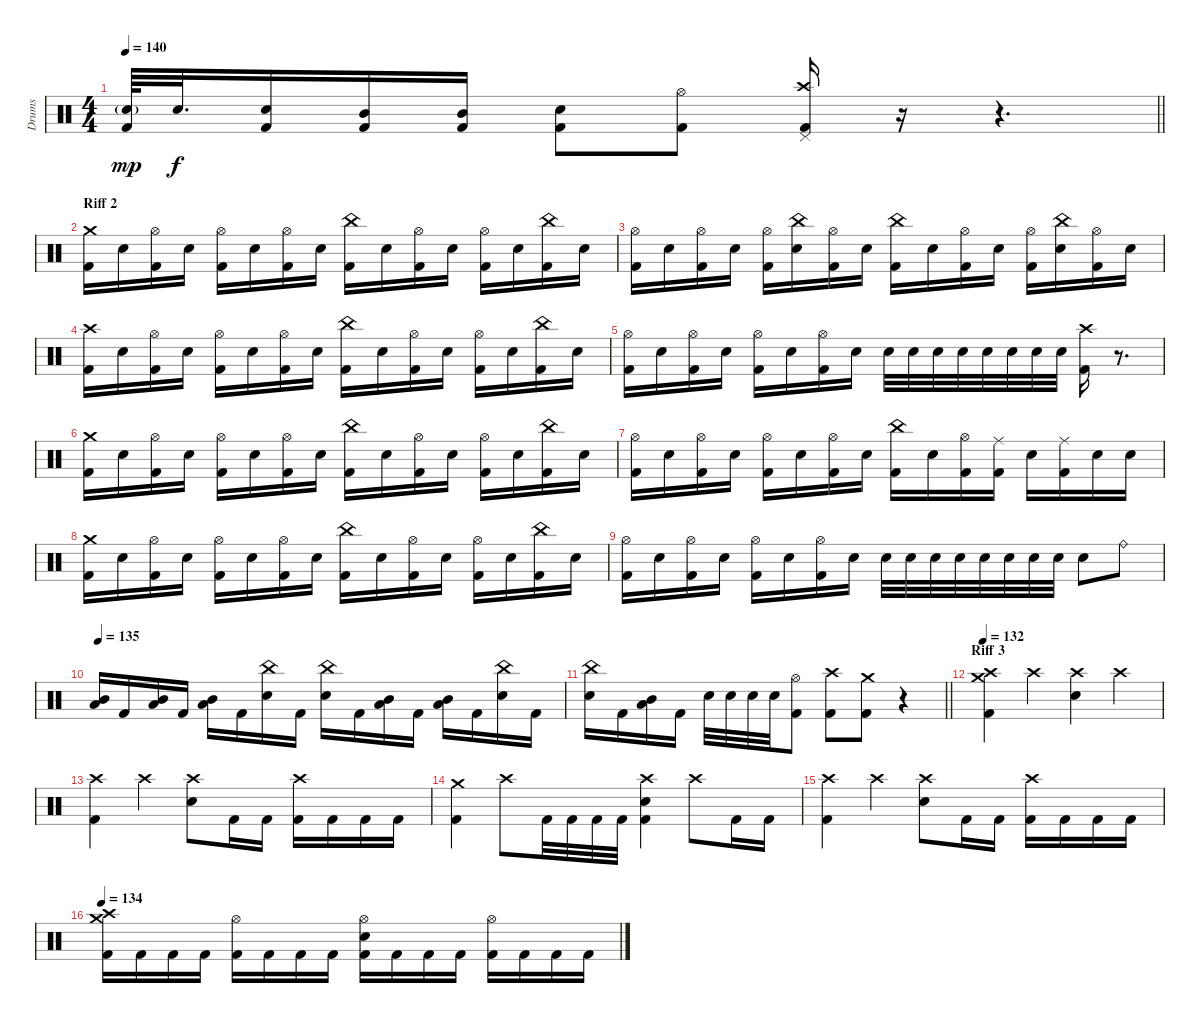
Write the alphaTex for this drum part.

\track ("Drums" "Drums") {instrument percussion}
\staff {score}
\articulation defaults
\ts (4 4)
\tempo 140
\clef neutral
\barLineRight lightlight
\ks c
("Electric Snare (hit)"{g} "Kick (hit) 2").64{dy mp} "Electric Snare (hit)".32{d dy f} ("Electric Snare (hit)" "Kick (hit) 2").16 ("Mid Tom (hit)" "Kick (hit) 2").16 ("Mid Tom (hit)" "Kick (hit) 2").16 ("Electric Snare (hit)" "Kick (hit) 2").8 ("Hi-Hat (open)" "Kick (hit) 2").8 ("Crash high (hit)" "Pedal Hi-Hat (hit)" "Kick (hit) 2").16 r.16{volume 0} r.4{d} |
\section ("" "Riff 2")
("Crash medium (hit)" "Kick (hit) 2").16{volume 13} "Electric Snare (hit)".16 ("Hi-Hat (open)" "Kick (hit) 2").16 "Electric Snare (hit)".16 ("Hi-Hat (open)" "Kick (hit) 2").16 "Electric Snare (hit)".16 ("Hi-Hat (open)" "Kick (hit) 2").16 "Electric Snare (hit)".16 ("China (hit)" "Kick (hit) 2").16 "Electric Snare (hit)".16 ("Hi-Hat (open)" "Kick (hit) 2").16 "Electric Snare (hit)".16 ("Hi-Hat (open)" "Kick (hit) 2").16 "Electric Snare (hit)".16 ("China (hit)" "Kick (hit) 2").16 "Electric Snare (hit)".16 |
("Hi-Hat (open)" "Kick (hit) 2").16 "Electric Snare (hit)".16 ("Hi-Hat (open)" "Kick (hit) 2").16 "Electric Snare (hit)".16 ("Hi-Hat (open)" "Kick (hit) 2").16 ("China (hit)" "Electric Snare (hit)").16 ("Hi-Hat (open)" "Kick (hit) 2").16 "Electric Snare (hit)".16 ("China (hit)" "Kick (hit) 2").16 "Electric Snare (hit)".16 ("Hi-Hat (open)" "Kick (hit) 2").16 "Electric Snare (hit)".16 ("Hi-Hat (open)" "Kick (hit) 2").16 ("China (hit)" "Electric Snare (hit)").16 ("Hi-Hat (open)" "Kick (hit) 2").16 "Electric Snare (hit)".16 |
("Crash high (hit)" "Kick (hit) 2").16 "Electric Snare (hit)".16 ("Hi-Hat (open)" "Kick (hit) 2").16 "Electric Snare (hit)".16 ("Hi-Hat (open)" "Kick (hit) 2").16 "Electric Snare (hit)".16 ("Hi-Hat (open)" "Kick (hit) 2").16 "Electric Snare (hit)".16 ("China (hit)" "Kick (hit) 2").16 "Electric Snare (hit)".16 ("Hi-Hat (open)" "Kick (hit) 2").16 "Electric Snare (hit)".16 ("Hi-Hat (open)" "Kick (hit) 2").16 "Electric Snare (hit)".16 ("China (hit)" "Kick (hit) 2").16 "Electric Snare (hit)".16 |
("Hi-Hat (open)" "Kick (hit) 2").16 "Electric Snare (hit)".16 ("Hi-Hat (open)" "Kick (hit) 2").16 "Electric Snare (hit)".16 ("Hi-Hat (open)" "Kick (hit) 2").16 "Electric Snare (hit)".16 ("Hi-Hat (open)" "Kick (hit) 2").16 "Electric Snare (hit)".16 "Electric Snare (hit)".32 "Electric Snare (hit)".32 "Electric Snare (hit)".32 "Electric Snare (hit)".32 "Electric Snare (hit)".32 "Electric Snare (hit)".32 "Electric Snare (hit)".32 "Electric Snare (hit)".32 ("Crash high (hit)" "Kick (hit) 2").16 r.8{d volume 0} |
("Crash medium (hit)" "Kick (hit) 2").16{volume 13} "Electric Snare (hit)".16 ("Hi-Hat (open)" "Kick (hit) 2").16 "Electric Snare (hit)".16 ("Hi-Hat (open)" "Kick (hit) 2").16 "Electric Snare (hit)".16 ("Hi-Hat (open)" "Kick (hit) 2").16 "Electric Snare (hit)".16 ("China (hit)" "Kick (hit) 2").16 "Electric Snare (hit)".16 ("Hi-Hat (open)" "Kick (hit) 2").16 "Electric Snare (hit)".16 ("Hi-Hat (open)" "Kick (hit) 2").16 "Electric Snare (hit)".16 ("China (hit)" "Kick (hit) 2").16 "Electric Snare (hit)".16 |
("Hi-Hat (open)" "Kick (hit) 2").16 "Electric Snare (hit)".16 ("Hi-Hat (open)" "Kick (hit) 2").16 "Electric Snare (hit)".16 ("Hi-Hat (open)" "Kick (hit) 2").16 "Electric Snare (hit)".16 ("Hi-Hat (open)" "Kick (hit) 2").16 "Electric Snare (hit)".16 ("China (hit)" "Kick (hit) 2").16 "Electric Snare (hit)".16 ("Hi-Hat (open)" "Kick (hit) 2").16 ("Ride (middle)" "Kick (hit) 2").16 "Electric Snare (hit)".16 ("Ride (middle)" "Kick (hit) 2").16 "Electric Snare (hit)".16 "Electric Snare (hit)".16 |
("Crash medium (hit)" "Kick (hit) 2").16 "Electric Snare (hit)".16 ("Hi-Hat (open)" "Kick (hit) 2").16 "Electric Snare (hit)".16 ("Hi-Hat (open)" "Kick (hit) 2").16 "Electric Snare (hit)".16 ("Hi-Hat (open)" "Kick (hit) 2").16 "Electric Snare (hit)".16 ("China (hit)" "Kick (hit) 2").16 "Electric Snare (hit)".16 ("Hi-Hat (open)" "Kick (hit) 2").16 "Electric Snare (hit)".16 ("Hi-Hat (open)" "Kick (hit) 2").16 "Electric Snare (hit)".16 ("China (hit)" "Kick (hit) 2").16 "Electric Snare (hit)".16 |
("Hi-Hat (open)" "Kick (hit) 2").16 "Electric Snare (hit)".16 ("Hi-Hat (open)" "Kick (hit) 2").16 "Electric Snare (hit)".16 ("Hi-Hat (open)" "Kick (hit) 2").16 "Electric Snare (hit)".16 ("Hi-Hat (open)" "Kick (hit) 2").16 "Electric Snare (hit)".16 "Electric Snare (hit)".32 "Electric Snare (hit)".32 "Electric Snare (hit)".32 "Electric Snare (hit)".32 "Electric Snare (hit)".32 "Electric Snare (hit)".32 "Electric Snare (hit)".32 "Electric Snare (hit)".32 "Electric Snare (hit)".8 "Ride (bell)".8 |
\tempo 135
("Low Tom (hit)" "Mid Tom (hit)").16 "Kick (hit) 2".16 ("Low Tom (hit)" "Mid Tom (hit)").16 "Kick (hit) 2".16 ("Low Tom (hit)" "Mid Tom (hit)").16 "Kick (hit) 2".16 ("China (hit)" "Electric Snare (hit)").16 "Kick (hit) 2".16 ("China (hit)" "Electric Snare (hit)").16 "Kick (hit) 2".16 ("Low Tom (hit)" "Mid Tom (hit)").16 "Kick (hit) 2".16 ("Low Tom (hit)" "Mid Tom (hit)").16 "Kick (hit) 2".16 ("China (hit)" "Electric Snare (hit)").16 "Kick (hit) 2".16 |
\barLineRight lightlight
("China (hit)" "Electric Snare (hit)").16 "Kick (hit) 2".16 ("Low Tom (hit)" "Mid Tom (hit)").16 "Kick (hit) 2".16 "Electric Snare (hit)".32 "Electric Snare (hit)".32 "Electric Snare (hit)".32 "Electric Snare (hit)".32 ("Hi-Hat (open)" "Kick (hit) 2").8 ("Crash high (hit)" "Kick (hit) 2").8 ("Crash medium (hit)" "Kick (hit) 2").8 r.4{volume 0} |
\section ("" "Riff 3")
\tempo 132
("Crash medium (hit)" "Crash high (hit)" "Kick (hit) 2").4{volume 13} "Crash high (hit)".4 ("Crash high (hit)" "Electric Snare (hit)").4 "Crash high (hit)".4 |
("Crash high (hit)" "Kick (hit) 2").4 "Crash high (hit)".4 ("Crash high (hit)" "Electric Snare (hit)").8 "Kick (hit) 2".16 "Kick (hit) 2".16 ("Crash high (hit)" "Kick (hit) 2").16 "Kick (hit) 2".16 "Kick (hit) 2".16 "Kick (hit) 2".16 |
("Crash medium (hit)" "Kick (hit) 2").4 "Crash high (hit)".8 "Kick (hit) 2".32 "Kick (hit) 2".32 "Kick (hit) 2".32 "Kick (hit) 2".32 ("Crash high (hit)" "Electric Snare (hit)" "Kick (hit) 2").4 "Crash high (hit)".8 "Kick (hit) 2".16 "Kick (hit) 2".16 |
("Crash high (hit)" "Kick (hit) 2").4 "Crash high (hit)".4 ("Crash high (hit)" "Electric Snare (hit)").8 "Kick (hit) 2".16 "Kick (hit) 2".16 ("Crash high (hit)" "Kick (hit) 2").16 "Kick (hit) 2".16 "Kick (hit) 2".16 "Kick (hit) 2".16 |
\tempo 134
("Crash medium (hit)" "Crash high (hit)" "Kick (hit) 2").16 "Kick (hit) 2".16 "Kick (hit) 2".16 "Kick (hit) 2".16 ("Hi-Hat (open)" "Kick (hit) 2").16 "Kick (hit) 2".16 "Kick (hit) 2".16 "Kick (hit) 2".16 ("Hi-Hat (open)" "Electric Snare (hit)" "Kick (hit) 2").16 "Kick (hit) 2".16 "Kick (hit) 2".16 "Kick (hit) 2".16 ("Hi-Hat (open)" "Kick (hit) 2").16 "Kick (hit) 2".16 "Kick (hit) 2".16 "Kick (hit) 2".16
